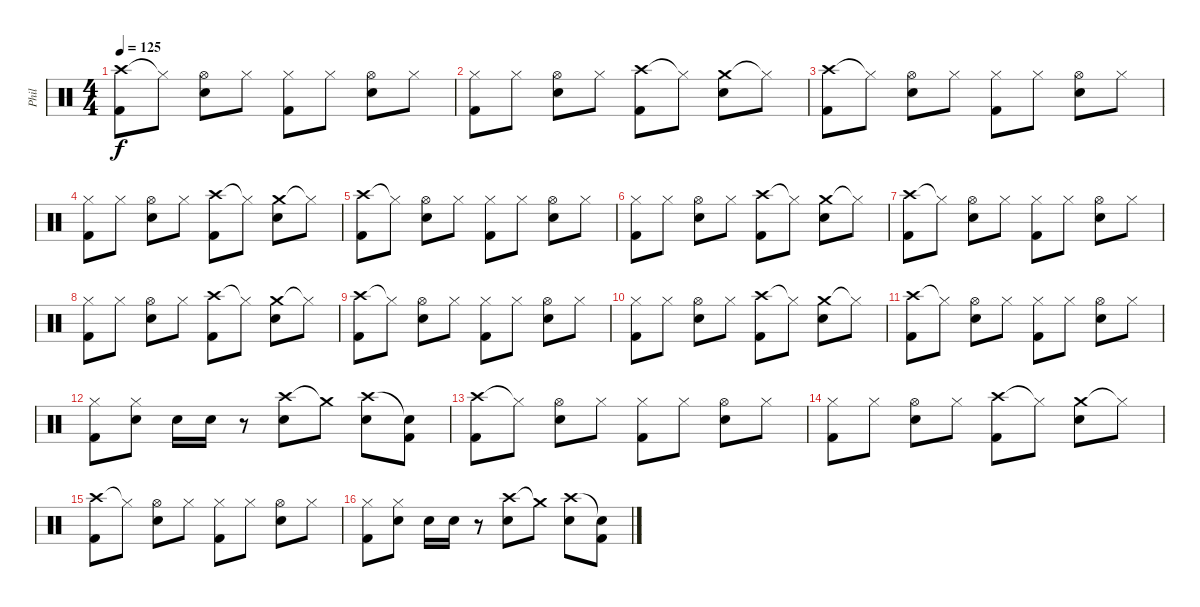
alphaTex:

\track ("Phil" "Phil") {instrument percussion}
\staff {score}
\articulation defaults
\ts (4 4)
\tempo 125
\clef neutral
\ks c
("Crash high (hit)" "Kick (hit) 2").8{dy f} "Hi-Hat (closed)"{t}.8 ("Hi-Hat (open)" "Snare (hit) 2").8 "Hi-Hat (closed)".8 ("Hi-Hat (closed)" "Kick (hit) 2").8 "Hi-Hat (closed)".8 ("Hi-Hat (open)" "Snare (hit) 2").8 "Hi-Hat (closed)".8 |
("Hi-Hat (closed)" "Kick (hit) 2").8 "Hi-Hat (closed)".8 ("Hi-Hat (open)" "Snare (hit) 2").8 "Hi-Hat (closed)".8 ("Crash high (hit)" "Kick (hit) 2").8 "Hi-Hat (closed)"{t}.8 ("Crash medium (hit)" "Snare (hit) 2").8 "Hi-Hat (closed)"{t}.8 |
("Crash high (hit)" "Kick (hit) 2").8 "Hi-Hat (closed)"{t}.8 ("Hi-Hat (open)" "Snare (hit) 2").8 "Hi-Hat (closed)".8 ("Hi-Hat (closed)" "Kick (hit) 2").8 "Hi-Hat (closed)".8 ("Hi-Hat (open)" "Snare (hit) 2").8 "Hi-Hat (closed)".8 |
("Hi-Hat (closed)" "Kick (hit) 2").8 "Hi-Hat (closed)".8 ("Hi-Hat (open)" "Snare (hit) 2").8 "Hi-Hat (closed)".8 ("Crash high (hit)" "Kick (hit) 2").8 "Hi-Hat (closed)"{t}.8 ("Crash medium (hit)" "Snare (hit) 2").8 "Hi-Hat (closed)"{t}.8 |
("Crash high (hit)" "Kick (hit) 2").8 "Hi-Hat (closed)"{t}.8 ("Hi-Hat (open)" "Snare (hit) 2").8 "Hi-Hat (closed)".8 ("Hi-Hat (closed)" "Kick (hit) 2").8 "Hi-Hat (closed)".8 ("Hi-Hat (open)" "Snare (hit) 2").8 "Hi-Hat (closed)".8 |
("Hi-Hat (closed)" "Kick (hit) 2").8 "Hi-Hat (closed)".8 ("Hi-Hat (open)" "Snare (hit) 2").8 "Hi-Hat (closed)".8 ("Crash high (hit)" "Kick (hit) 2").8 "Hi-Hat (closed)"{t}.8 ("Crash medium (hit)" "Snare (hit) 2").8 "Hi-Hat (closed)"{t}.8 |
("Crash high (hit)" "Kick (hit) 2").8 "Hi-Hat (closed)"{t}.8 ("Hi-Hat (open)" "Snare (hit) 2").8 "Hi-Hat (closed)".8 ("Hi-Hat (closed)" "Kick (hit) 2").8 "Hi-Hat (closed)".8 ("Hi-Hat (open)" "Snare (hit) 2").8 "Hi-Hat (closed)".8 |
("Hi-Hat (closed)" "Kick (hit) 2").8 "Hi-Hat (closed)".8 ("Hi-Hat (open)" "Snare (hit) 2").8 "Hi-Hat (closed)".8 ("Crash high (hit)" "Kick (hit) 2").8 "Hi-Hat (closed)"{t}.8 ("Crash medium (hit)" "Snare (hit) 2").8 "Hi-Hat (closed)"{t}.8 |
("Crash high (hit)" "Kick (hit) 2").8 "Hi-Hat (closed)"{t}.8 ("Hi-Hat (open)" "Snare (hit) 2").8 "Hi-Hat (closed)".8 ("Hi-Hat (closed)" "Kick (hit) 2").8 "Hi-Hat (closed)".8 ("Hi-Hat (open)" "Snare (hit) 2").8 "Hi-Hat (closed)".8 |
("Hi-Hat (closed)" "Kick (hit) 2").8 "Hi-Hat (closed)".8 ("Hi-Hat (open)" "Snare (hit) 2").8 "Hi-Hat (closed)".8 ("Crash high (hit)" "Kick (hit) 2").8 "Hi-Hat (closed)"{t}.8 ("Crash medium (hit)" "Snare (hit) 2").8 "Hi-Hat (closed)"{t}.8 |
("Crash high (hit)" "Kick (hit) 2").8 "Hi-Hat (closed)"{t}.8 ("Hi-Hat (open)" "Snare (hit) 2").8 "Hi-Hat (closed)".8 ("Hi-Hat (closed)" "Kick (hit) 2").8 "Hi-Hat (closed)".8 ("Hi-Hat (open)" "Snare (hit) 2").8 "Hi-Hat (closed)".8 |
("Hi-Hat (closed)" "Kick (hit) 2").8 ("Hi-Hat (closed)" "Snare (hit) 2").8 "Snare (hit) 2".16 "Snare (hit) 2".16 r.8 ("Crash high (hit)" "Snare (hit) 2").8 "Crash medium (hit)"{t}.8 ("Crash high (hit)" "Snare (hit) 2").8 ("Snare (hit)"{t} "Kick (hit) 2").8 |
("Crash high (hit)" "Kick (hit) 2").8 "Hi-Hat (closed)"{t}.8 ("Hi-Hat (open)" "Snare (hit) 2").8 "Hi-Hat (closed)".8 ("Hi-Hat (closed)" "Kick (hit) 2").8 "Hi-Hat (closed)".8 ("Hi-Hat (open)" "Snare (hit) 2").8 "Hi-Hat (closed)".8 |
("Hi-Hat (closed)" "Kick (hit) 2").8 "Hi-Hat (closed)".8 ("Hi-Hat (open)" "Snare (hit) 2").8 "Hi-Hat (closed)".8 ("Crash high (hit)" "Kick (hit) 2").8 "Hi-Hat (closed)"{t}.8 ("Crash medium (hit)" "Snare (hit) 2").8 "Hi-Hat (closed)"{t}.8 |
("Crash high (hit)" "Kick (hit) 2").8 "Hi-Hat (closed)"{t}.8 ("Hi-Hat (open)" "Snare (hit) 2").8 "Hi-Hat (closed)".8 ("Hi-Hat (closed)" "Kick (hit) 2").8 "Hi-Hat (closed)".8 ("Hi-Hat (open)" "Snare (hit) 2").8 "Hi-Hat (closed)".8 |
("Hi-Hat (closed)" "Kick (hit) 2").8 ("Hi-Hat (closed)" "Snare (hit) 2").8 "Snare (hit) 2".16 "Snare (hit) 2".16 r.8 ("Crash high (hit)" "Snare (hit) 2").8 "Crash medium (hit)"{t}.8 ("Crash high (hit)" "Snare (hit) 2").8 ("Snare (hit)"{t} "Kick (hit) 2").8
